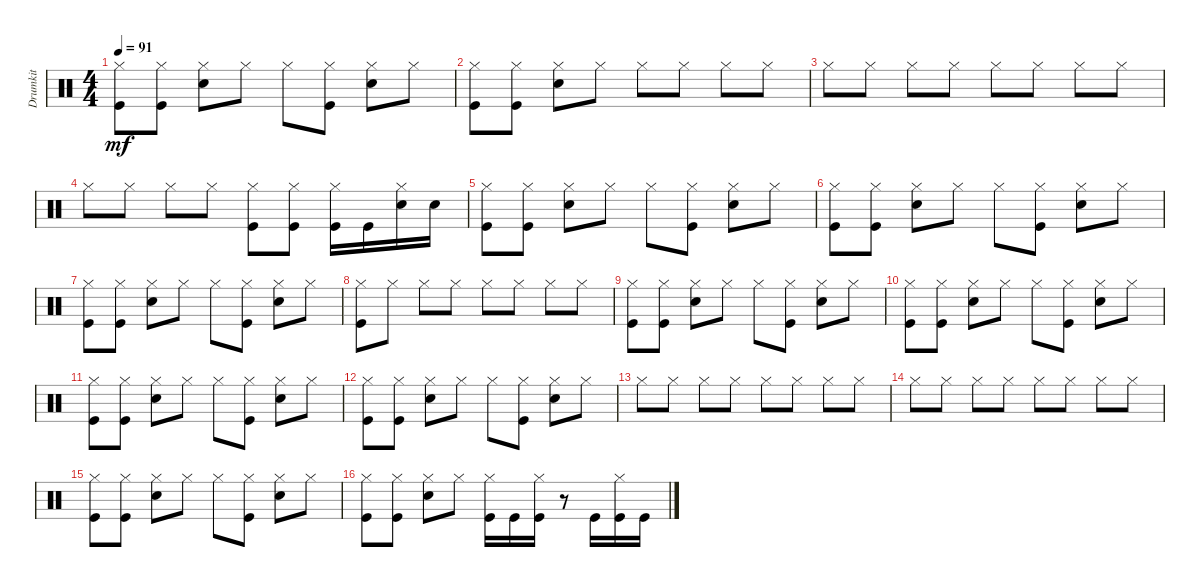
\track ("Drumkit" "Drumkit") {instrument percussion}
\staff {score}
\articulation defaults
\ts (4 4)
\tempo 91
\clef neutral
\ks c
("Kick (hit)" "Hi-Hat (closed)").8{dy mf} ("Kick (hit)" "Hi-Hat (closed)").8 ("Hi-Hat (closed)" "Snare (hit) 2").8 "Hi-Hat (closed)".8 "Hi-Hat (closed)".8 ("Kick (hit)" "Hi-Hat (closed)").8 ("Hi-Hat (closed)" "Snare (hit) 2").8 "Hi-Hat (closed)".8 |
("Kick (hit)" "Hi-Hat (closed)").8 ("Kick (hit)" "Hi-Hat (closed)").8 ("Hi-Hat (closed)" "Snare (hit) 2").8 "Hi-Hat (closed)".8 "Hi-Hat (closed)".8 "Hi-Hat (closed)".8 "Hi-Hat (closed)".8 "Hi-Hat (closed)".8 |
"Hi-Hat (closed)".8 "Hi-Hat (closed)".8 "Hi-Hat (closed)".8 "Hi-Hat (closed)".8 "Hi-Hat (closed)".8 "Hi-Hat (closed)".8 "Hi-Hat (closed)".8 "Hi-Hat (closed)".8 |
"Hi-Hat (closed)".8 "Hi-Hat (closed)".8 "Hi-Hat (closed)".8 "Hi-Hat (closed)".8 ("Kick (hit)" "Hi-Hat (closed)").8 ("Kick (hit)" "Hi-Hat (closed)").8 ("Kick (hit)" "Hi-Hat (closed)").16 "Kick (hit)".16 ("Snare (hit) 2" "Hi-Hat (closed)").16 "Snare (hit) 2".16 |
("Kick (hit)" "Hi-Hat (closed)").8 ("Kick (hit)" "Hi-Hat (closed)").8 ("Hi-Hat (closed)" "Snare (hit) 2").8 "Hi-Hat (closed)".8 "Hi-Hat (closed)".8 ("Kick (hit)" "Hi-Hat (closed)").8 ("Hi-Hat (closed)" "Snare (hit) 2").8 "Hi-Hat (closed)".8 |
("Kick (hit)" "Hi-Hat (closed)").8 ("Kick (hit)" "Hi-Hat (closed)").8 ("Hi-Hat (closed)" "Snare (hit) 2").8 "Hi-Hat (closed)".8 "Hi-Hat (closed)".8 ("Kick (hit)" "Hi-Hat (closed)").8 ("Hi-Hat (closed)" "Snare (hit) 2").8 "Hi-Hat (closed)".8 |
("Kick (hit)" "Hi-Hat (closed)").8 ("Kick (hit)" "Hi-Hat (closed)").8 ("Hi-Hat (closed)" "Snare (hit) 2").8 "Hi-Hat (closed)".8 "Hi-Hat (closed)".8 ("Kick (hit)" "Hi-Hat (closed)").8 ("Hi-Hat (closed)" "Snare (hit) 2").8 "Hi-Hat (closed)".8 |
("Kick (hit)" "Hi-Hat (closed)").8 "Hi-Hat (closed)".8 "Hi-Hat (closed)".8 "Hi-Hat (closed)".8 "Hi-Hat (closed)".8 "Hi-Hat (closed)".8 "Hi-Hat (closed)".8 "Hi-Hat (closed)".8 |
("Kick (hit)" "Hi-Hat (closed)").8 ("Kick (hit)" "Hi-Hat (closed)").8 ("Hi-Hat (closed)" "Snare (hit) 2").8 "Hi-Hat (closed)".8 "Hi-Hat (closed)".8 ("Kick (hit)" "Hi-Hat (closed)").8 ("Hi-Hat (closed)" "Snare (hit) 2").8 "Hi-Hat (closed)".8 |
("Kick (hit)" "Hi-Hat (closed)").8 ("Kick (hit)" "Hi-Hat (closed)").8 ("Hi-Hat (closed)" "Snare (hit) 2").8 "Hi-Hat (closed)".8 "Hi-Hat (closed)".8 ("Kick (hit)" "Hi-Hat (closed)").8 ("Hi-Hat (closed)" "Snare (hit) 2").8 "Hi-Hat (closed)".8 |
("Kick (hit)" "Hi-Hat (closed)").8 ("Kick (hit)" "Hi-Hat (closed)").8 ("Hi-Hat (closed)" "Snare (hit) 2").8 "Hi-Hat (closed)".8 "Hi-Hat (closed)".8 ("Kick (hit)" "Hi-Hat (closed)").8 ("Hi-Hat (closed)" "Snare (hit) 2").8 "Hi-Hat (closed)".8 |
("Kick (hit)" "Hi-Hat (closed)").8 ("Kick (hit)" "Hi-Hat (closed)").8 ("Hi-Hat (closed)" "Snare (hit) 2").8 "Hi-Hat (closed)".8 "Hi-Hat (closed)".8 ("Kick (hit)" "Hi-Hat (closed)").8 ("Hi-Hat (closed)" "Snare (hit) 2").8 "Hi-Hat (closed)".8 |
"Hi-Hat (closed)".8 "Hi-Hat (closed)".8 "Hi-Hat (closed)".8 "Hi-Hat (closed)".8 "Hi-Hat (closed)".8 "Hi-Hat (closed)".8 "Hi-Hat (closed)".8 "Hi-Hat (closed)".8 |
"Hi-Hat (closed)".8 "Hi-Hat (closed)".8 "Hi-Hat (closed)".8 "Hi-Hat (closed)".8 "Hi-Hat (closed)".8 "Hi-Hat (closed)".8 "Hi-Hat (closed)".8 "Hi-Hat (closed)".8 |
("Kick (hit)" "Hi-Hat (closed)").8 ("Kick (hit)" "Hi-Hat (closed)").8 ("Hi-Hat (closed)" "Snare (hit) 2").8 "Hi-Hat (closed)".8 "Hi-Hat (closed)".8 ("Kick (hit)" "Hi-Hat (closed)").8 ("Hi-Hat (closed)" "Snare (hit) 2").8 "Hi-Hat (closed)".8 |
("Kick (hit)" "Hi-Hat (closed)").8 ("Kick (hit)" "Hi-Hat (closed)").8 ("Hi-Hat (closed)" "Snare (hit) 2").8 "Hi-Hat (closed)".8 ("Hi-Hat (closed)" "Kick (hit)").16 "Kick (hit)".16 ("Kick (hit)" "Hi-Hat (closed)").16 r.8 "Kick (hit)".16 ("Kick (hit)" "Hi-Hat (closed)").16 "Kick (hit)".16
